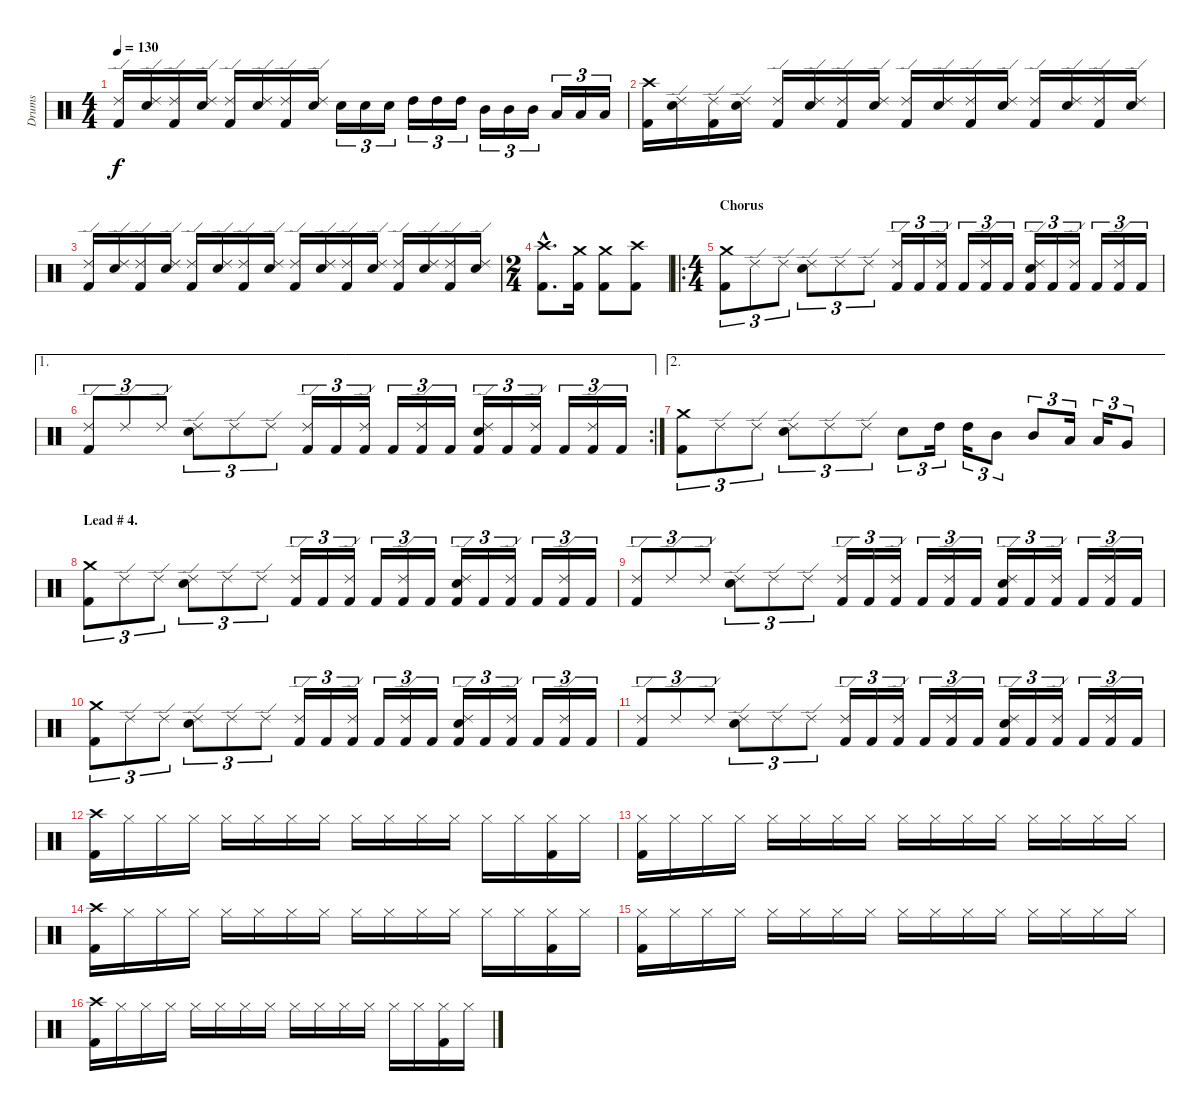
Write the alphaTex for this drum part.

\track ("Drums" "Drums") {instrument percussion}
\staff {score}
\articulation defaults
\ts (4 4)
\tempo 130
\clef neutral
\ks c
("Ride (edge) 2" "Kick (hit) 2").16{dy f} ("Ride (edge) 2" "Snare (hit) 2").16 ("Ride (edge) 2" "Kick (hit) 2").16 ("Ride (edge) 2" "Snare (hit) 2").16 ("Ride (edge) 2" "Kick (hit) 2").16 ("Ride (edge) 2" "Snare (hit) 2").16 ("Ride (edge) 2" "Kick (hit) 2").16 ("Ride (edge) 2" "Snare (hit) 2").16 "Snare (hit) 2".16{tu (3 2)} "Snare (hit) 2".16{tu (3 2)} "Snare (hit) 2".16{tu (3 2)} "High Tom (hit)".16{tu (3 2)} "High Tom (hit)".16{tu (3 2)} "High Tom (hit)".16{tu (3 2)} "Mid Tom (hit)".16{tu (3 2)} "Mid Tom (hit)".16{tu (3 2)} "Mid Tom (hit)".16{tu (3 2)} "Low Tom (hit)".16{tu (3 2)} "Low Tom (hit)".16{tu (3 2)} "Low Tom (hit)".16{tu (3 2)} |
("Crash high (hit)" "Kick (hit) 2").16 ("Ride (edge) 2" "Snare (hit) 2").16 ("Ride (edge) 2" "Kick (hit) 2").16 ("Ride (edge) 2" "Snare (hit) 2").16 ("Ride (edge) 2" "Kick (hit) 2").16 ("Ride (edge) 2" "Snare (hit) 2").16 ("Ride (edge) 2" "Kick (hit) 2").16 ("Ride (edge) 2" "Snare (hit) 2").16 ("Ride (edge) 2" "Kick (hit) 2").16 ("Ride (edge) 2" "Snare (hit) 2").16 ("Ride (edge) 2" "Kick (hit) 2").16 ("Ride (edge) 2" "Snare (hit) 2").16 ("Ride (edge) 2" "Kick (hit) 2").16 ("Ride (edge) 2" "Snare (hit) 2").16 ("Ride (edge) 2" "Kick (hit) 2").16 ("Ride (edge) 2" "Snare (hit) 2").16 |
("Ride (edge) 2" "Kick (hit) 2").16 ("Ride (edge) 2" "Snare (hit) 2").16 ("Ride (edge) 2" "Kick (hit) 2").16 ("Ride (edge) 2" "Snare (hit) 2").16 ("Ride (edge) 2" "Kick (hit) 2").16 ("Ride (edge) 2" "Snare (hit) 2").16 ("Ride (edge) 2" "Kick (hit) 2").16 ("Ride (edge) 2" "Snare (hit) 2").16 ("Ride (edge) 2" "Kick (hit) 2").16 ("Ride (edge) 2" "Snare (hit) 2").16 ("Ride (edge) 2" "Kick (hit) 2").16 ("Ride (edge) 2" "Snare (hit) 2").16 ("Ride (edge) 2" "Kick (hit) 2").16 ("Ride (edge) 2" "Snare (hit) 2").16 ("Ride (edge) 2" "Kick (hit) 2").16 ("Ride (edge) 2" "Snare (hit) 2").16 |
\ts (2 4)
("Crash high (hit)"{hac} "Kick (hit) 2"{hac}).8{d} ("Crash medium (hit)" "Kick (hit) 2").16 ("Crash medium (hit)" "Kick (hit) 2").8 ("Crash high (hit)" "Kick (hit) 2").8 |
\ro
\ts (4 4)
\section ("" "Chorus")
("Crash medium (hit)" "Kick (hit) 2").8{tu (3 2)} "Ride (edge) 2".8{tu (3 2)} "Ride (edge) 2".8{tu (3 2)} ("Ride (edge) 2" "Snare (hit) 2").8{tu (3 2)} "Ride (edge) 2".8{tu (3 2)} "Ride (edge) 2".8{tu (3 2)} ("Ride (edge) 2" "Kick (hit) 2").16{tu (3 2)} "Kick (hit) 2".16{tu (3 2)} ("Ride (edge) 2" "Kick (hit) 2").16{tu (3 2)} "Kick (hit) 2".16{tu (3 2)} ("Ride (edge) 2" "Kick (hit) 2").16{tu (3 2)} "Kick (hit) 2".16{tu (3 2)} ("Ride (edge) 2" "Snare (hit) 2" "Kick (hit) 2").16{tu (3 2)} "Kick (hit) 2".16{tu (3 2)} ("Ride (edge) 2" "Kick (hit) 2").16{tu (3 2)} "Kick (hit) 2".16{tu (3 2)} ("Ride (edge) 2" "Kick (hit) 2").16{tu (3 2)} "Kick (hit) 2".16{tu (3 2)} |
\ae 1
\rc 2
("Ride (edge) 2" "Kick (hit) 2").8{tu (3 2)} "Ride (edge) 2".8{tu (3 2)} "Ride (edge) 2".8{tu (3 2)} ("Ride (edge) 2" "Snare (hit) 2").8{tu (3 2)} "Ride (edge) 2".8{tu (3 2)} "Ride (edge) 2".8{tu (3 2)} ("Ride (edge) 2" "Kick (hit) 2").16{tu (3 2)} "Kick (hit) 2".16{tu (3 2)} ("Ride (edge) 2" "Kick (hit) 2").16{tu (3 2)} "Kick (hit) 2".16{tu (3 2)} ("Ride (edge) 2" "Kick (hit) 2").16{tu (3 2)} "Kick (hit) 2".16{tu (3 2)} ("Ride (edge) 2" "Snare (hit) 2" "Kick (hit) 2").16{tu (3 2)} "Kick (hit) 2".16{tu (3 2)} ("Ride (edge) 2" "Kick (hit) 2").16{tu (3 2)} "Kick (hit) 2".16{tu (3 2)} ("Ride (edge) 2" "Kick (hit) 2").16{tu (3 2)} "Kick (hit) 2".16{tu (3 2)} |
\ae 2
("Crash medium (hit)" "Kick (hit) 2").8{tu (3 2)} "Ride (edge) 2".8{tu (3 2)} "Ride (edge) 2".8{tu (3 2)} ("Ride (edge) 2" "Snare (hit) 2").8{tu (3 2)} "Ride (edge) 2".8{tu (3 2)} "Ride (edge) 2".8{tu (3 2)} "Snare (hit) 2".8{tu (3 2)} "High Tom (hit)".16{tu (3 2)} "High Tom (hit)".16{tu (3 2)} "Mid Tom (hit)".8{tu (3 2)} "Mid Tom (hit)".8{tu (3 2)} "Low Tom (hit)".16{tu (3 2)} "Low Tom (hit)".16{tu (3 2)} "Very Low Tom (hit)".8{tu (3 2)} |
\section ("" "Lead # 4.")
("Crash medium (hit)" "Kick (hit) 2").8{tu (3 2)} "Ride (edge) 2".8{tu (3 2)} "Ride (edge) 2".8{tu (3 2)} ("Ride (edge) 2" "Snare (hit) 2").8{tu (3 2)} "Ride (edge) 2".8{tu (3 2)} "Ride (edge) 2".8{tu (3 2)} ("Ride (edge) 2" "Kick (hit) 2").16{tu (3 2)} "Kick (hit) 2".16{tu (3 2)} ("Ride (edge) 2" "Kick (hit) 2").16{tu (3 2)} "Kick (hit) 2".16{tu (3 2)} ("Ride (edge) 2" "Kick (hit) 2").16{tu (3 2)} "Kick (hit) 2".16{tu (3 2)} ("Ride (edge) 2" "Snare (hit) 2" "Kick (hit) 2").16{tu (3 2)} "Kick (hit) 2".16{tu (3 2)} ("Ride (edge) 2" "Kick (hit) 2").16{tu (3 2)} "Kick (hit) 2".16{tu (3 2)} ("Ride (edge) 2" "Kick (hit) 2").16{tu (3 2)} "Kick (hit) 2".16{tu (3 2)} |
("Ride (edge) 2" "Kick (hit) 2").8{tu (3 2)} "Ride (edge) 2".8{tu (3 2)} "Ride (edge) 2".8{tu (3 2)} ("Ride (edge) 2" "Snare (hit) 2").8{tu (3 2)} "Ride (edge) 2".8{tu (3 2)} "Ride (edge) 2".8{tu (3 2)} ("Ride (edge) 2" "Kick (hit) 2").16{tu (3 2)} "Kick (hit) 2".16{tu (3 2)} ("Ride (edge) 2" "Kick (hit) 2").16{tu (3 2)} "Kick (hit) 2".16{tu (3 2)} ("Ride (edge) 2" "Kick (hit) 2").16{tu (3 2)} "Kick (hit) 2".16{tu (3 2)} ("Ride (edge) 2" "Snare (hit) 2" "Kick (hit) 2").16{tu (3 2)} "Kick (hit) 2".16{tu (3 2)} ("Ride (edge) 2" "Kick (hit) 2").16{tu (3 2)} "Kick (hit) 2".16{tu (3 2)} ("Ride (edge) 2" "Kick (hit) 2").16{tu (3 2)} "Kick (hit) 2".16{tu (3 2)} |
("Crash medium (hit)" "Kick (hit) 2").8{tu (3 2)} "Ride (edge) 2".8{tu (3 2)} "Ride (edge) 2".8{tu (3 2)} ("Ride (edge) 2" "Snare (hit) 2").8{tu (3 2)} "Ride (edge) 2".8{tu (3 2)} "Ride (edge) 2".8{tu (3 2)} ("Ride (edge) 2" "Kick (hit) 2").16{tu (3 2)} "Kick (hit) 2".16{tu (3 2)} ("Ride (edge) 2" "Kick (hit) 2").16{tu (3 2)} "Kick (hit) 2".16{tu (3 2)} ("Ride (edge) 2" "Kick (hit) 2").16{tu (3 2)} "Kick (hit) 2".16{tu (3 2)} ("Ride (edge) 2" "Snare (hit) 2" "Kick (hit) 2").16{tu (3 2)} "Kick (hit) 2".16{tu (3 2)} ("Ride (edge) 2" "Kick (hit) 2").16{tu (3 2)} "Kick (hit) 2".16{tu (3 2)} ("Ride (edge) 2" "Kick (hit) 2").16{tu (3 2)} "Kick (hit) 2".16{tu (3 2)} |
("Ride (edge) 2" "Kick (hit) 2").8{tu (3 2)} "Ride (edge) 2".8{tu (3 2)} "Ride (edge) 2".8{tu (3 2)} ("Ride (edge) 2" "Snare (hit) 2").8{tu (3 2)} "Ride (edge) 2".8{tu (3 2)} "Ride (edge) 2".8{tu (3 2)} ("Ride (edge) 2" "Kick (hit) 2").16{tu (3 2)} "Kick (hit) 2".16{tu (3 2)} ("Ride (edge) 2" "Kick (hit) 2").16{tu (3 2)} "Kick (hit) 2".16{tu (3 2)} ("Ride (edge) 2" "Kick (hit) 2").16{tu (3 2)} "Kick (hit) 2".16{tu (3 2)} ("Ride (edge) 2" "Snare (hit) 2" "Kick (hit) 2").16{tu (3 2)} "Kick (hit) 2".16{tu (3 2)} ("Ride (edge) 2" "Kick (hit) 2").16{tu (3 2)} "Kick (hit) 2".16{tu (3 2)} ("Ride (edge) 2" "Kick (hit) 2").16{tu (3 2)} "Kick (hit) 2".16{tu (3 2)} |
("Crash high (hit)" "Kick (hit) 2").16 "Hi-Hat (closed)".16 "Hi-Hat (closed)".16 "Hi-Hat (closed)".16 "Hi-Hat (closed)".16 "Hi-Hat (closed)".16 "Hi-Hat (closed)".16 "Hi-Hat (closed)".16 "Hi-Hat (closed)".16 "Hi-Hat (closed)".16 "Hi-Hat (closed)".16 "Hi-Hat (closed)".16 "Hi-Hat (closed)".16 "Hi-Hat (closed)".16 ("Hi-Hat (closed)" "Kick (hit) 2").16 "Hi-Hat (closed)".16 |
("Hi-Hat (closed)" "Kick (hit) 2").16 "Hi-Hat (closed)".16 "Hi-Hat (closed)".16 "Hi-Hat (closed)".16 "Hi-Hat (closed)".16 "Hi-Hat (closed)".16 "Hi-Hat (closed)".16 "Hi-Hat (closed)".16 "Hi-Hat (closed)".16 "Hi-Hat (closed)".16 "Hi-Hat (closed)".16 "Hi-Hat (closed)".16 "Hi-Hat (closed)".16 "Hi-Hat (closed)".16 "Hi-Hat (closed)".16 "Hi-Hat (closed)".16 |
("Crash high (hit)" "Kick (hit) 2").16 "Hi-Hat (closed)".16 "Hi-Hat (closed)".16 "Hi-Hat (closed)".16 "Hi-Hat (closed)".16 "Hi-Hat (closed)".16 "Hi-Hat (closed)".16 "Hi-Hat (closed)".16 "Hi-Hat (closed)".16 "Hi-Hat (closed)".16 "Hi-Hat (closed)".16 "Hi-Hat (closed)".16 "Hi-Hat (closed)".16 "Hi-Hat (closed)".16 ("Hi-Hat (closed)" "Kick (hit) 2").16 "Hi-Hat (closed)".16 |
("Hi-Hat (closed)" "Kick (hit) 2").16 "Hi-Hat (closed)".16 "Hi-Hat (closed)".16 "Hi-Hat (closed)".16 "Hi-Hat (closed)".16 "Hi-Hat (closed)".16 "Hi-Hat (closed)".16 "Hi-Hat (closed)".16 "Hi-Hat (closed)".16 "Hi-Hat (closed)".16 "Hi-Hat (closed)".16 "Hi-Hat (closed)".16 "Hi-Hat (closed)".16 "Hi-Hat (closed)".16 "Hi-Hat (closed)".16 "Hi-Hat (closed)".16 |
("Crash high (hit)" "Kick (hit) 2").16 "Hi-Hat (closed)".16 "Hi-Hat (closed)".16 "Hi-Hat (closed)".16 "Hi-Hat (closed)".16 "Hi-Hat (closed)".16 "Hi-Hat (closed)".16 "Hi-Hat (closed)".16 "Hi-Hat (closed)".16 "Hi-Hat (closed)".16 "Hi-Hat (closed)".16 "Hi-Hat (closed)".16 "Hi-Hat (closed)".16 "Hi-Hat (closed)".16 ("Hi-Hat (closed)" "Kick (hit) 2").16 "Hi-Hat (closed)".16
